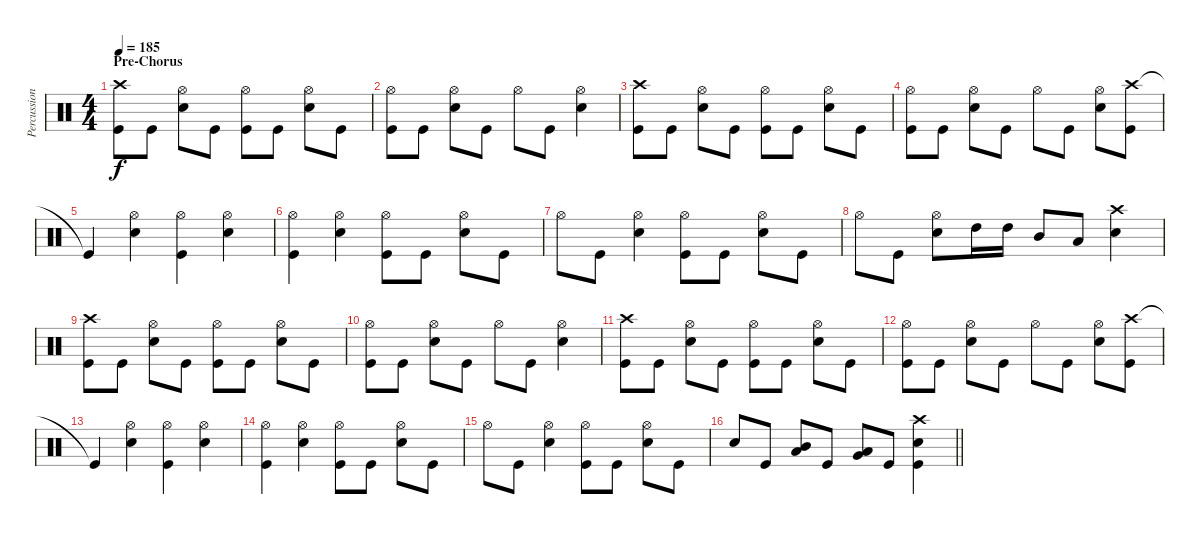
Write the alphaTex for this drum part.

\track ("Percussion" "Percussion") {instrument percussion}
\staff {score}
\articulation defaults
\ts (4 4)
\section ("" "Pre-Chorus")
\tempo 185
\clef neutral
\ks c
("Crash high (hit)" "Kick (hit)").8{dy f} "Kick (hit)".8 ("Snare (hit) 2" "Hi-Hat (open)").8 "Kick (hit)".8 ("Kick (hit)" "Hi-Hat (open)").8 "Kick (hit)".8 ("Snare (hit) 2" "Hi-Hat (open)").8 "Kick (hit)".8 |
("Kick (hit)" "Hi-Hat (open)").8 "Kick (hit)".8 ("Snare (hit) 2" "Hi-Hat (open)").8 "Kick (hit)".8 "Hi-Hat (open)".8 "Kick (hit)".8 ("Snare (hit) 2" "Hi-Hat (open)").4 |
("Crash high (hit)" "Kick (hit)").8 "Kick (hit)".8 ("Snare (hit) 2" "Hi-Hat (open)").8 "Kick (hit)".8 ("Kick (hit)" "Hi-Hat (open)").8 "Kick (hit)".8 ("Snare (hit) 2" "Hi-Hat (open)").8 "Kick (hit)".8 |
("Kick (hit)" "Hi-Hat (open)").8 "Kick (hit)".8 ("Snare (hit) 2" "Hi-Hat (open)").8 "Kick (hit)".8 "Hi-Hat (open)".8 "Kick (hit)".8 ("Snare (hit) 2" "Hi-Hat (open)").8 ("Crash high (hit)" "Kick (hit)").8 |
"Kick (hit)"{t}.4 ("Hi-Hat (open)" "Snare (hit) 2").4 ("Hi-Hat (open)" "Kick (hit)").4 ("Snare (hit) 2" "Hi-Hat (open)").4 |
("Kick (hit)" "Hi-Hat (open)").4 ("Hi-Hat (open)" "Snare (hit) 2").4 ("Kick (hit)" "Hi-Hat (open)").8 "Kick (hit)".8 ("Snare (hit) 2" "Hi-Hat (open)").8 "Kick (hit)".8 |
"Hi-Hat (open)".8 "Kick (hit)".8 ("Snare (hit) 2" "Hi-Hat (open)").4 ("Hi-Hat (open)" "Kick (hit)").8 "Kick (hit)".8 ("Snare (hit) 2" "Hi-Hat (open)").8 "Kick (hit)".8 |
"Hi-Hat (open)".8 "Kick (hit)".8 ("Snare (hit) 2" "Hi-Hat (open)").8 "High Tom (hit)".16 "High Tom (hit)".16 "Mid Tom (hit)".8 "Low Tom (hit)".8 ("Snare (hit) 2" "Crash high (hit)").4 |
("Crash high (hit)" "Kick (hit)").8 "Kick (hit)".8 ("Snare (hit) 2" "Hi-Hat (open)").8 "Kick (hit)".8 ("Kick (hit)" "Hi-Hat (open)").8 "Kick (hit)".8 ("Snare (hit) 2" "Hi-Hat (open)").8 "Kick (hit)".8 |
("Kick (hit)" "Hi-Hat (open)").8 "Kick (hit)".8 ("Snare (hit) 2" "Hi-Hat (open)").8 "Kick (hit)".8 "Hi-Hat (open)".8 "Kick (hit)".8 ("Snare (hit) 2" "Hi-Hat (open)").4 |
("Crash high (hit)" "Kick (hit)").8 "Kick (hit)".8 ("Snare (hit) 2" "Hi-Hat (open)").8 "Kick (hit)".8 ("Kick (hit)" "Hi-Hat (open)").8 "Kick (hit)".8 ("Snare (hit) 2" "Hi-Hat (open)").8 "Kick (hit)".8 |
("Kick (hit)" "Hi-Hat (open)").8 "Kick (hit)".8 ("Snare (hit) 2" "Hi-Hat (open)").8 "Kick (hit)".8 "Hi-Hat (open)".8 "Kick (hit)".8 ("Snare (hit) 2" "Hi-Hat (open)").8 ("Crash high (hit)" "Kick (hit)").8 |
"Kick (hit)"{t}.4 ("Hi-Hat (open)" "Snare (hit) 2").4 ("Hi-Hat (open)" "Kick (hit)").4 ("Snare (hit) 2" "Hi-Hat (open)").4 |
("Kick (hit)" "Hi-Hat (open)").4 ("Hi-Hat (open)" "Snare (hit) 2").4 ("Kick (hit)" "Hi-Hat (open)").8 "Kick (hit)".8 ("Snare (hit) 2" "Hi-Hat (open)").8 "Kick (hit)".8 |
"Hi-Hat (open)".8 "Kick (hit)".8 ("Snare (hit) 2" "Hi-Hat (open)").4 ("Hi-Hat (open)" "Kick (hit)").8 "Kick (hit)".8 ("Snare (hit) 2" "Hi-Hat (open)").8 "Kick (hit)".8 |
\barLineRight lightlight "Snare (hit) 2".8 "Kick (hit)".8
("Mid Tom (hit)" "Low Tom (hit)").8 "Kick (hit)".8 ("Very Low Tom (hit)" "Low Floor Tom (hit)").8 "Kick (hit)".8 ("Crash high (hit)" "Snare (hit) 2" "Kick (hit)").4
